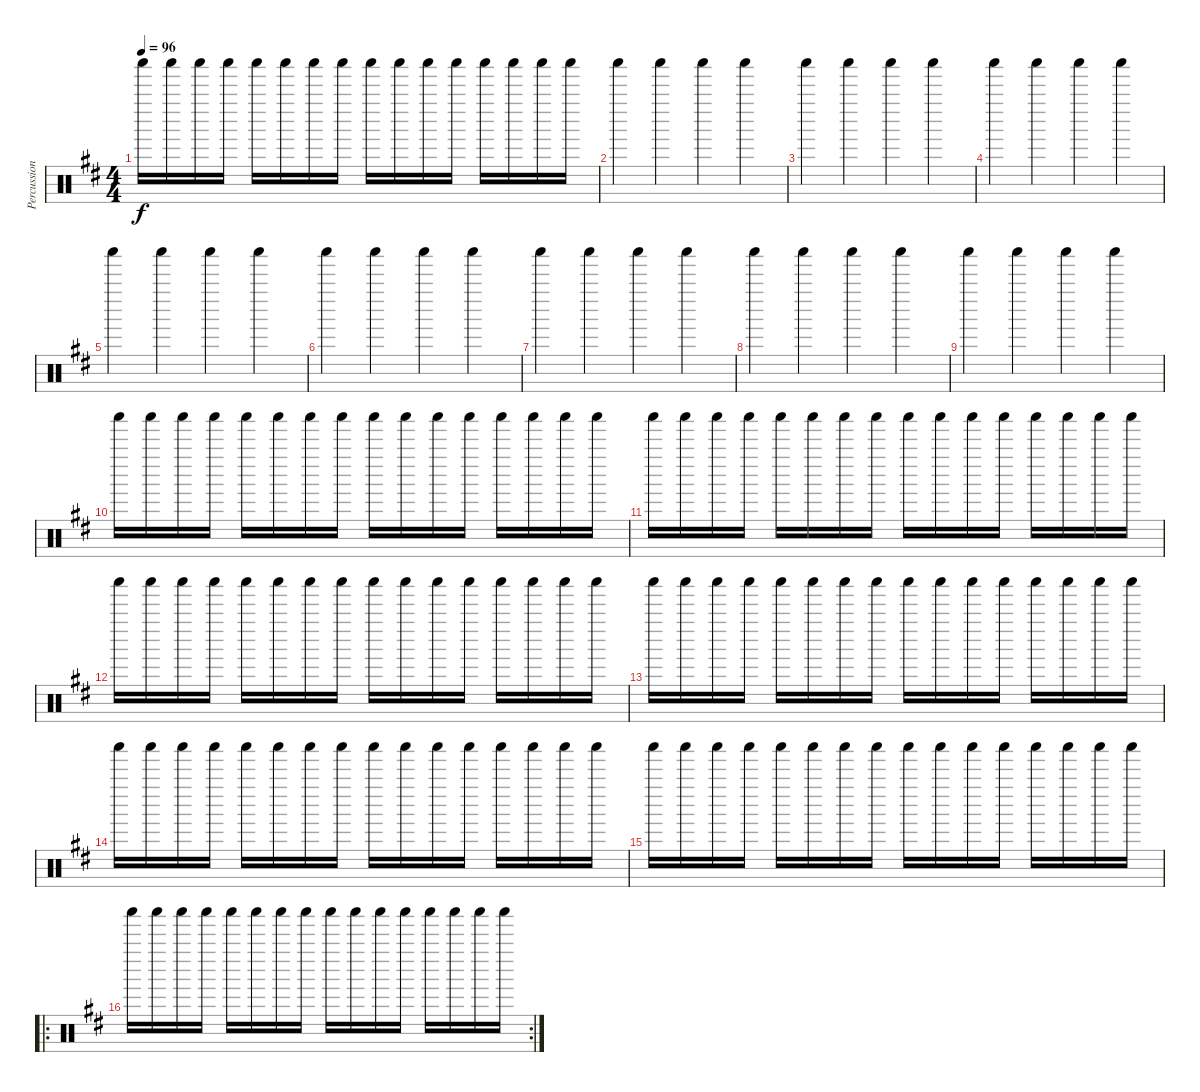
\track ("Percussion" "Percussion") {instrument percussion}
\staff {score}
\articulation defaults
\ts (4 4)
\tempo 96
\clef neutral
\ks d "Shaker (hit)".16{dy f} "Shaker (hit)".16 "Shaker (hit)".16 "Shaker (hit)".16 "Shaker (hit)".16 "Shaker (hit)".16 "Shaker (hit)".16 "Shaker (hit)".16 "Shaker (hit)".16 "Shaker (hit)".16 "Shaker (hit)".16 "Shaker (hit)".16 "Shaker (hit)".16 "Shaker (hit)".16 "Shaker (hit)".16 "Shaker (hit)".16
|
"Shaker (hit)".4 "Shaker (hit)".4 "Shaker (hit)".4 "Shaker (hit)".4 |
"Shaker (hit)".4 "Shaker (hit)".4 "Shaker (hit)".4 "Shaker (hit)".4 |
"Shaker (hit)".4 "Shaker (hit)".4 "Shaker (hit)".4 "Shaker (hit)".4 |
"Shaker (hit)".4 "Shaker (hit)".4 "Shaker (hit)".4 "Shaker (hit)".4 |
"Shaker (hit)".4 "Shaker (hit)".4 "Shaker (hit)".4 "Shaker (hit)".4 |
"Shaker (hit)".4 "Shaker (hit)".4 "Shaker (hit)".4 "Shaker (hit)".4 |
"Shaker (hit)".4 "Shaker (hit)".4 "Shaker (hit)".4 "Shaker (hit)".4 |
"Shaker (hit)".4 "Shaker (hit)".4 "Shaker (hit)".4 "Shaker (hit)".4 |
"Shaker (hit)".16 "Shaker (hit)".16 "Shaker (hit)".16 "Shaker (hit)".16 "Shaker (hit)".16 "Shaker (hit)".16 "Shaker (hit)".16 "Shaker (hit)".16 "Shaker (hit)".16 "Shaker (hit)".16 "Shaker (hit)".16 "Shaker (hit)".16 "Shaker (hit)".16 "Shaker (hit)".16 "Shaker (hit)".16 "Shaker (hit)".16 |
"Shaker (hit)".16 "Shaker (hit)".16 "Shaker (hit)".16 "Shaker (hit)".16 "Shaker (hit)".16 "Shaker (hit)".16 "Shaker (hit)".16 "Shaker (hit)".16 "Shaker (hit)".16 "Shaker (hit)".16 "Shaker (hit)".16 "Shaker (hit)".16 "Shaker (hit)".16 "Shaker (hit)".16 "Shaker (hit)".16 "Shaker (hit)".16 |
"Shaker (hit)".16 "Shaker (hit)".16 "Shaker (hit)".16 "Shaker (hit)".16 "Shaker (hit)".16 "Shaker (hit)".16 "Shaker (hit)".16 "Shaker (hit)".16 "Shaker (hit)".16 "Shaker (hit)".16 "Shaker (hit)".16 "Shaker (hit)".16 "Shaker (hit)".16 "Shaker (hit)".16 "Shaker (hit)".16 "Shaker (hit)".16 |
"Shaker (hit)".16 "Shaker (hit)".16 "Shaker (hit)".16 "Shaker (hit)".16 "Shaker (hit)".16 "Shaker (hit)".16 "Shaker (hit)".16 "Shaker (hit)".16 "Shaker (hit)".16 "Shaker (hit)".16 "Shaker (hit)".16 "Shaker (hit)".16 "Shaker (hit)".16 "Shaker (hit)".16 "Shaker (hit)".16 "Shaker (hit)".16 |
"Shaker (hit)".16 "Shaker (hit)".16 "Shaker (hit)".16 "Shaker (hit)".16 "Shaker (hit)".16 "Shaker (hit)".16 "Shaker (hit)".16 "Shaker (hit)".16 "Shaker (hit)".16 "Shaker (hit)".16 "Shaker (hit)".16 "Shaker (hit)".16 "Shaker (hit)".16 "Shaker (hit)".16 "Shaker (hit)".16 "Shaker (hit)".16 |
"Shaker (hit)".16 "Shaker (hit)".16 "Shaker (hit)".16 "Shaker (hit)".16 "Shaker (hit)".16 "Shaker (hit)".16 "Shaker (hit)".16 "Shaker (hit)".16 "Shaker (hit)".16 "Shaker (hit)".16 "Shaker (hit)".16 "Shaker (hit)".16 "Shaker (hit)".16 "Shaker (hit)".16 "Shaker (hit)".16 "Shaker (hit)".16 |
\ro
\rc 2 "Shaker (hit)".16 "Shaker (hit)".16 "Shaker (hit)".16 "Shaker (hit)".16 "Shaker (hit)".16 "Shaker (hit)".16 "Shaker (hit)".16 "Shaker (hit)".16 "Shaker (hit)".16 "Shaker (hit)".16 "Shaker (hit)".16 "Shaker (hit)".16 "Shaker (hit)".16 "Shaker (hit)".16 "Shaker (hit)".16 "Shaker (hit)".16
